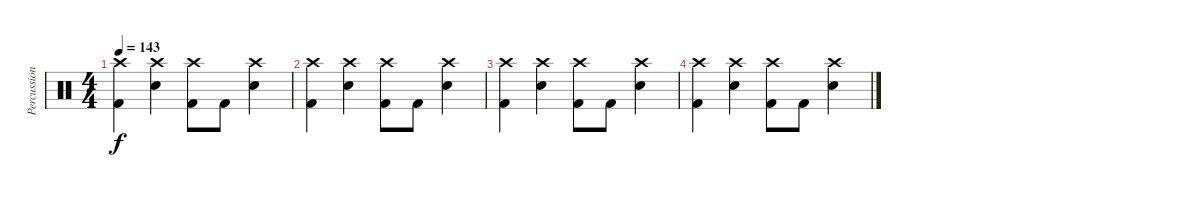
\track ("Percussion" "Percussion") {instrument percussion}
\staff {score}
\articulation defaults
\ts (4 4)
\tempo 143
\clef neutral
\ks c
("Crash high (hit)" "Kick (hit) 2").4{dy f} ("Crash high (hit)" "Electric Snare (hit)").4 ("Crash high (hit)" "Kick (hit) 2").8 "Kick (hit) 2".8 ("Crash high (hit)" "Electric Snare (hit)").4 |
("Crash high (hit)" "Kick (hit) 2").4 ("Crash high (hit)" "Electric Snare (hit)").4 ("Crash high (hit)" "Kick (hit) 2").8 "Kick (hit) 2".8 ("Crash high (hit)" "Electric Snare (hit)").4 |
("Crash high (hit)" "Kick (hit) 2").4 ("Crash high (hit)" "Electric Snare (hit)").4 ("Crash high (hit)" "Kick (hit) 2").8 "Kick (hit) 2".8 ("Crash high (hit)" "Electric Snare (hit)").4 |
("Crash high (hit)" "Kick (hit) 2").4 ("Crash high (hit)" "Electric Snare (hit)").4 ("Crash high (hit)" "Kick (hit) 2").8 "Kick (hit) 2".8 ("Crash high (hit)" "Electric Snare (hit)").4
